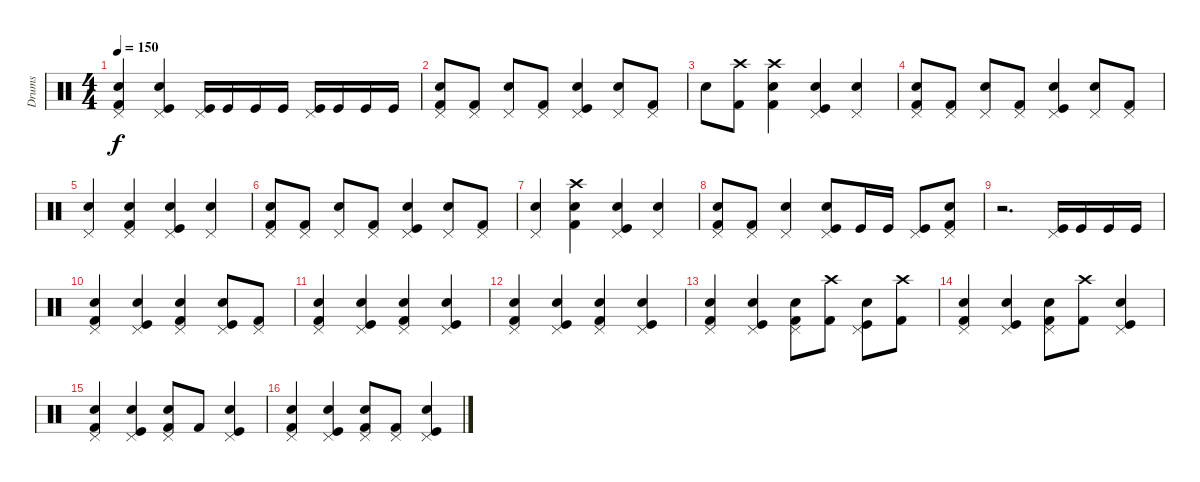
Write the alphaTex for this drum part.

\track ("Drums" "Drums") {instrument percussion}
\staff {score}
\articulation defaults
\ts (4 4)
\tempo 150
\clef neutral
\ks c
("Kick (hit) 2" "Electric Snare (hit)" "Pedal Hi-Hat (hit)").4{dy f} ("Kick (hit)" "Electric Snare (hit)" "Pedal Hi-Hat (hit)").4 ("Kick (hit)" "Pedal Hi-Hat (hit)").16 "Kick (hit)".16 "Kick (hit)".16 "Kick (hit)".16 ("Kick (hit)" "Pedal Hi-Hat (hit)").16 "Kick (hit)".16 "Kick (hit)".16 "Kick (hit)".16 |
("Kick (hit) 2" "Electric Snare (hit)" "Pedal Hi-Hat (hit)").8 ("Kick (hit) 2" "Pedal Hi-Hat (hit)").8 ("Electric Snare (hit)" "Pedal Hi-Hat (hit)").8 ("Kick (hit) 2" "Pedal Hi-Hat (hit)").8 ("Kick (hit)" "Electric Snare (hit)" "Pedal Hi-Hat (hit)").4 ("Electric Snare (hit)" "Pedal Hi-Hat (hit)").8 ("Kick (hit) 2" "Pedal Hi-Hat (hit)").8 |
"Electric Snare (hit)".8 ("Kick (hit) 2" "Crash high (hit)").8 ("Kick (hit) 2" "Electric Snare (hit)" "Crash high (hit)").4 ("Kick (hit)" "Electric Snare (hit)" "Pedal Hi-Hat (hit)").4 ("Electric Snare (hit)" "Pedal Hi-Hat (hit)").4 |
("Kick (hit) 2" "Electric Snare (hit)" "Pedal Hi-Hat (hit)").8 ("Kick (hit) 2" "Pedal Hi-Hat (hit)").8 ("Electric Snare (hit)" "Pedal Hi-Hat (hit)").8 ("Kick (hit) 2" "Pedal Hi-Hat (hit)").8 ("Kick (hit)" "Electric Snare (hit)" "Pedal Hi-Hat (hit)").4 ("Electric Snare (hit)" "Pedal Hi-Hat (hit)").8 ("Kick (hit) 2" "Pedal Hi-Hat (hit)").8 |
("Electric Snare (hit)" "Pedal Hi-Hat (hit)").4 ("Kick (hit) 2" "Electric Snare (hit)" "Pedal Hi-Hat (hit)").4 ("Kick (hit)" "Electric Snare (hit)" "Pedal Hi-Hat (hit)").4 ("Electric Snare (hit)" "Pedal Hi-Hat (hit)").4 |
("Kick (hit) 2" "Electric Snare (hit)" "Pedal Hi-Hat (hit)").8 ("Kick (hit) 2" "Pedal Hi-Hat (hit)").8 ("Electric Snare (hit)" "Pedal Hi-Hat (hit)").8 ("Kick (hit) 2" "Pedal Hi-Hat (hit)").8 ("Kick (hit)" "Electric Snare (hit)" "Pedal Hi-Hat (hit)").4 ("Electric Snare (hit)" "Pedal Hi-Hat (hit)").8 ("Kick (hit) 2" "Pedal Hi-Hat (hit)").8 |
("Electric Snare (hit)" "Pedal Hi-Hat (hit)").4 ("Kick (hit) 2" "Electric Snare (hit)" "Crash high (hit)").4 ("Kick (hit)" "Electric Snare (hit)" "Pedal Hi-Hat (hit)").4 ("Electric Snare (hit)" "Pedal Hi-Hat (hit)").4 |
("Kick (hit) 2" "Electric Snare (hit)" "Pedal Hi-Hat (hit)").8 ("Kick (hit) 2" "Pedal Hi-Hat (hit)").8 ("Electric Snare (hit)" "Pedal Hi-Hat (hit)").4 ("Kick (hit)" "Electric Snare (hit)" "Pedal Hi-Hat (hit)").8 "Kick (hit)".16 "Kick (hit)".16 ("Kick (hit)" "Pedal Hi-Hat (hit)").8 ("Kick (hit) 2" "Electric Snare (hit)" "Pedal Hi-Hat (hit)").8 |
r.2{d} ("Kick (hit)" "Pedal Hi-Hat (hit)").16 "Kick (hit)".16 "Kick (hit)".16 "Kick (hit)".16 |
("Kick (hit) 2" "Electric Snare (hit)" "Pedal Hi-Hat (hit)").4 ("Kick (hit)" "Electric Snare (hit)" "Pedal Hi-Hat (hit)").4 ("Kick (hit) 2" "Electric Snare (hit)" "Pedal Hi-Hat (hit)").4 ("Kick (hit)" "Electric Snare (hit)" "Pedal Hi-Hat (hit)").8 ("Kick (hit) 2" "Pedal Hi-Hat (hit)").8 |
("Kick (hit) 2" "Electric Snare (hit)" "Pedal Hi-Hat (hit)").4 ("Kick (hit)" "Electric Snare (hit)" "Pedal Hi-Hat (hit)").4 ("Kick (hit) 2" "Electric Snare (hit)" "Pedal Hi-Hat (hit)").4 ("Kick (hit)" "Electric Snare (hit)" "Pedal Hi-Hat (hit)").4 |
("Kick (hit) 2" "Electric Snare (hit)" "Pedal Hi-Hat (hit)").4 ("Kick (hit)" "Electric Snare (hit)" "Pedal Hi-Hat (hit)").4 ("Kick (hit) 2" "Electric Snare (hit)" "Pedal Hi-Hat (hit)").4 ("Kick (hit)" "Electric Snare (hit)" "Pedal Hi-Hat (hit)").4 |
("Kick (hit) 2" "Electric Snare (hit)" "Pedal Hi-Hat (hit)").4 ("Kick (hit)" "Electric Snare (hit)" "Pedal Hi-Hat (hit)").4 ("Kick (hit) 2" "Electric Snare (hit)" "Pedal Hi-Hat (hit)").8 ("Kick (hit) 2" "Crash high (hit)").8 ("Kick (hit)" "Electric Snare (hit)" "Pedal Hi-Hat (hit)").8 ("Kick (hit) 2" "Crash high (hit)").8 |
("Kick (hit) 2" "Electric Snare (hit)" "Pedal Hi-Hat (hit)").4 ("Kick (hit)" "Electric Snare (hit)" "Pedal Hi-Hat (hit)").4 ("Kick (hit) 2" "Electric Snare (hit)" "Pedal Hi-Hat (hit)").8 ("Kick (hit) 2" "Crash high (hit)").8 ("Kick (hit)" "Electric Snare (hit)" "Pedal Hi-Hat (hit)").4 |
("Kick (hit) 2" "Electric Snare (hit)" "Pedal Hi-Hat (hit)").4 ("Kick (hit)" "Electric Snare (hit)" "Pedal Hi-Hat (hit)").4 ("Kick (hit) 2" "Electric Snare (hit)" "Pedal Hi-Hat (hit)").8 "Kick (hit) 2".8 ("Kick (hit)" "Electric Snare (hit)" "Pedal Hi-Hat (hit)").4 |
("Kick (hit) 2" "Electric Snare (hit)" "Pedal Hi-Hat (hit)").4 ("Kick (hit)" "Electric Snare (hit)" "Pedal Hi-Hat (hit)").4 ("Kick (hit) 2" "Electric Snare (hit)" "Pedal Hi-Hat (hit)").8 ("Kick (hit) 2" "Pedal Hi-Hat (hit)").8 ("Kick (hit)" "Electric Snare (hit)" "Pedal Hi-Hat (hit)").4
